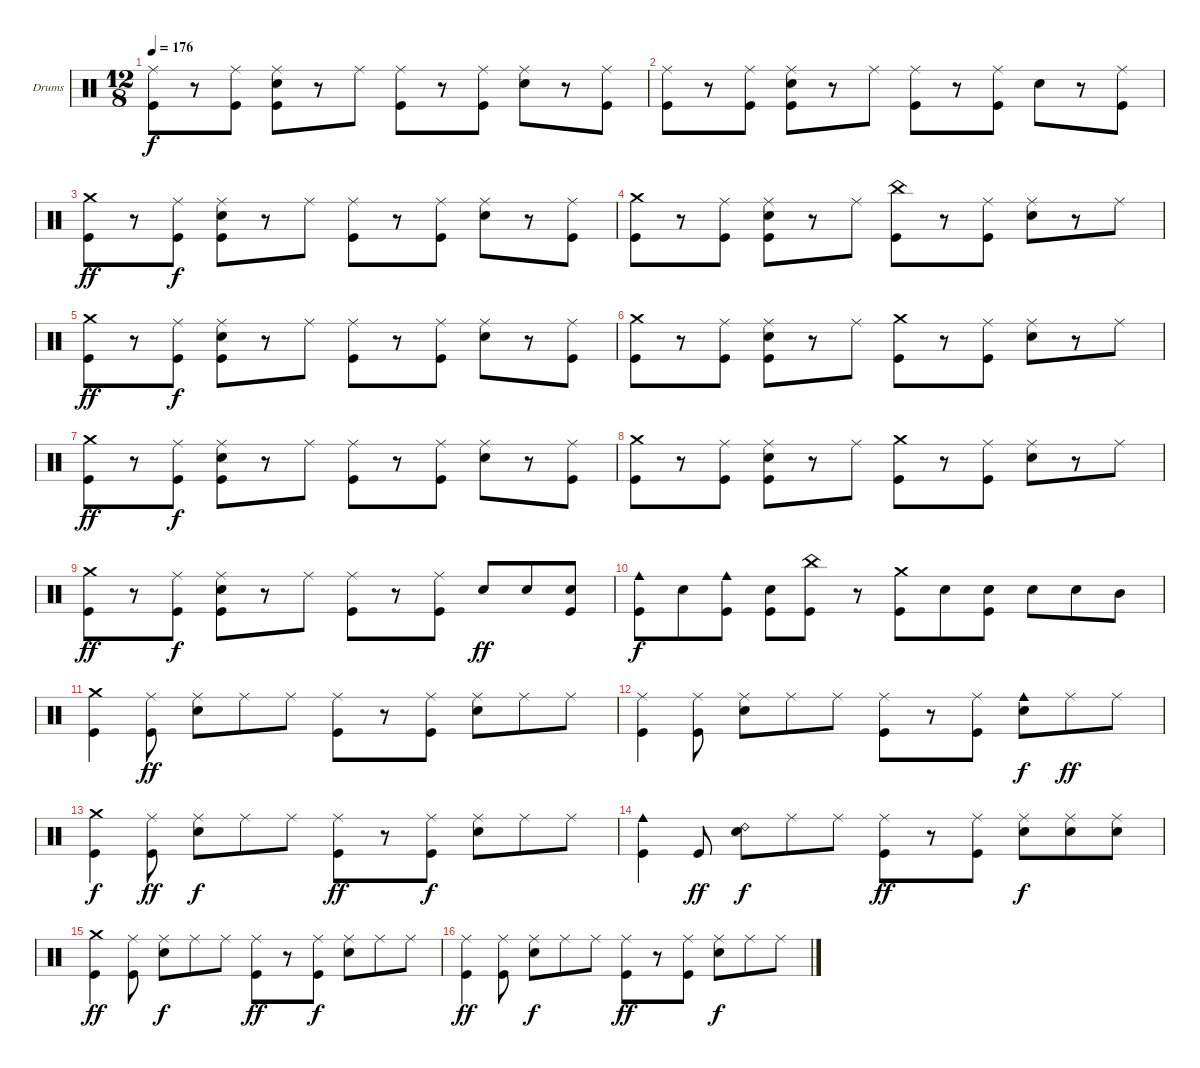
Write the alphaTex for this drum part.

\defaultSystemsLayout 4
\bracketExtendMode groupsimilarinstruments
\firstSystemTrackNameOrientation horizontal
\otherSystemsTrackNameOrientation horizontal
\track ("Drumkit" "Drums") {instrument percussion}
\staff {score}
\articulation defaults
\ts (12 8)
\tempo 176
\clef neutral
\scale
0.333333
\ks c
("Ride (middle)" "Kick (hit)").8{dy f} r.8 ("Ride (middle)" "Kick (hit)").8 ("Ride (middle)" "Snare (hit) 2" "Kick (hit)").8 r.8 "Ride (middle)".8 ("Ride (middle)" "Kick (hit)").8 r.8 ("Ride (middle)" "Kick (hit)").8 ("Ride (middle)" "Snare (hit) 2").8 r.8 ("Ride (middle)" "Kick (hit)").8 |
\scale
0.333333 ("Ride (middle)" "Kick (hit)").8 r.8 ("Ride (middle)" "Kick (hit)").8 ("Ride (middle)" "Snare (hit) 2" "Kick (hit)").8 r.8 "Ride (middle)".8 ("Ride (middle)" "Kick (hit)").8 r.8 ("Ride (middle)" "Kick (hit)").8 "Snare (hit) 2".8 r.8 ("Ride (middle)" "Kick (hit)").8 |
\scale
0.333333 ("Crash medium (hit)" "Kick (hit)").8{dy ff} r.8 ("Ride (middle)" "Kick (hit)").8{dy f} ("Ride (middle)" "Snare (hit) 2" "Kick (hit)").8 r.8 "Ride (middle)".8 ("Ride (middle)" "Kick (hit)").8 r.8 ("Ride (middle)" "Kick (hit)").8 ("Ride (middle)" "Snare (hit) 2").8 r.8 ("Ride (middle)" "Kick (hit)").8 |
\scale
0.333333 ("Crash medium (hit)" "Kick (hit)").8 r.8 ("Ride (middle)" "Kick (hit)").8 ("Ride (middle)" "Snare (hit) 2" "Kick (hit)").8 r.8 "Ride (middle)".8 ("China (hit)" "Kick (hit)").8 r.8 ("Ride (middle)" "Kick (hit)").8 ("Ride (middle)" "Snare (hit) 2").8 r.8 "Ride (middle)".8 |
\scale
0.333333 ("Crash medium (hit)" "Kick (hit)").8{dy ff} r.8 ("Ride (middle)" "Kick (hit)").8{dy f} ("Ride (middle)" "Snare (hit) 2" "Kick (hit)").8 r.8 "Ride (middle)".8 ("Ride (middle)" "Kick (hit)").8 r.8 ("Ride (middle)" "Kick (hit)").8 ("Ride (middle)" "Snare (hit) 2").8 r.8 ("Ride (middle)" "Kick (hit)").8 |
\scale
0.333333 ("Crash medium (hit)" "Kick (hit)").8 r.8 ("Ride (middle)" "Kick (hit)").8 ("Ride (middle)" "Snare (hit) 2" "Kick (hit)").8 r.8 "Ride (middle)".8 ("Crash medium (hit)" "Kick (hit)").8 r.8 ("Ride (middle)" "Kick (hit)").8 ("Ride (middle)" "Snare (hit) 2").8 r.8 "Ride (middle)".8 |
\scale
0.333333 ("Crash medium (hit)" "Kick (hit)").8{dy ff} r.8 ("Ride (middle)" "Kick (hit)").8{dy f} ("Ride (middle)" "Snare (hit) 2" "Kick (hit)").8 r.8 "Ride (middle)".8 ("Ride (middle)" "Kick (hit)").8 r.8 ("Ride (middle)" "Kick (hit)").8 ("Ride (middle)" "Snare (hit) 2").8 r.8 ("Ride (middle)" "Kick (hit)").8 |
\scale
0.333333 ("Crash medium (hit)" "Kick (hit)").8 r.8 ("Ride (middle)" "Kick (hit)").8 ("Ride (middle)" "Snare (hit) 2" "Kick (hit)").8 r.8 "Ride (middle)".8 ("Crash medium (hit)" "Kick (hit)").8 r.8 ("Ride (middle)" "Kick (hit)").8 ("Ride (middle)" "Snare (hit) 2").8 r.8 "Ride (middle)".8 |
\scale
0.333333 ("Crash medium (hit)" "Kick (hit)").8{dy ff} r.8 ("Ride (middle)" "Kick (hit)").8{dy f} ("Ride (middle)" "Snare (hit) 2" "Kick (hit)").8 r.8 "Ride (middle)".8 ("Ride (middle)" "Kick (hit)").8 r.8 ("Ride (middle)" "Kick (hit)").8 "Snare (hit) 2".8{dy ff} "Snare (hit) 2".8 ("Snare (hit) 2" "Kick (hit)").8 |
\scale
0.333333 ("Cowbell medium (hit)" "Kick (hit)").8{dy f} "Snare (hit) 2".8 ("Cowbell medium (hit)" "Kick (hit)").8 ("Snare (hit) 2" "Kick (hit)").8 ("China (hit)" "Kick (hit)").8 r.8 ("Crash medium (hit)" "Kick (hit)").8 "Snare (hit) 2".8 ("Snare (hit) 2" "Kick (hit)").8 "Snare (hit) 2".8 "Snare (hit) 2".8 "Mid Tom (hit)".8 |
\scale
0.333333 ("Crash medium (hit)" "Kick (hit)").4 ("Ride (middle)" "Kick (hit)").8{dy ff} ("Ride (middle)" "Snare (hit) 2").8 "Ride (middle)".8 "Ride (middle)".8 ("Ride (middle)" "Kick (hit)").8 r.8 ("Ride (middle)" "Kick (hit)").8 ("Ride (middle)" "Snare (hit) 2").8 "Ride (middle)".8 "Ride (middle)".8 |
\scale
0.333333 ("Ride (middle)" "Kick (hit)").4 ("Ride (middle)" "Kick (hit)").8 ("Ride (middle)" "Snare (hit) 2").8 "Ride (middle)".8 "Ride (middle)".8 ("Ride (middle)" "Kick (hit)").8 r.8 ("Ride (middle)" "Kick (hit)").8 ("Cowbell medium (hit)" "Snare (hit) 2").8{dy f} "Ride (middle)".8{dy ff} "Ride (middle)".8 |
\scale
0.333333 ("Crash medium (hit)" "Kick (hit)").4{dy f} ("Ride (middle)" "Kick (hit)").8{dy ff} ("Ride (middle)" "Snare (hit) 2").8{dy f} "Ride (middle)".8 "Ride (middle)".8 ("Ride (middle)" "Kick (hit)").8{dy ff} r.8 ("Ride (middle)" "Kick (hit)").8{dy f} ("Ride (middle)" "Snare (hit) 2").8 "Ride (middle)".8 "Ride (middle)".8 |
\scale
0.333333 ("Cowbell medium (hit)" "Kick (hit)").4 "Kick (hit)".8{dy ff} ("Ride (bell) 2" "Snare (hit) 2").8{dy f} "Ride (middle)".8 "Ride (middle)".8 ("Ride (middle)" "Kick (hit)").8{dy ff} r.8 ("Ride (middle)" "Kick (hit)").8 ("Ride (middle)" "Snare (hit) 2").8{dy f} ("Ride (middle)" "Snare (hit) 2").8 ("Ride (middle)" "Snare (hit) 2").8 |
\scale
0.333333 ("Crash medium (hit)" "Kick (hit)").4{dy ff} ("Ride (middle)" "Kick (hit)").8 ("Ride (middle)" "Snare (hit) 2").8{dy f} "Ride (middle)".8 "Ride (middle)".8 ("Ride (middle)" "Kick (hit)").8{dy ff} r.8 ("Ride (middle)" "Kick (hit)").8{dy f} ("Ride (middle)" "Snare (hit) 2").8 "Ride (middle)".8 "Ride (middle)".8 |
\scale
0.333333 ("Ride (middle)" "Kick (hit)").4{dy ff} ("Ride (middle)" "Kick (hit)").8 ("Ride (middle)" "Snare (hit) 2").8{dy f} "Ride (middle)".8 "Ride (middle)".8 ("Ride (middle)" "Kick (hit)").8{dy ff} r.8 ("Ride (middle)" "Kick (hit)").8 ("Ride (middle)" "Snare (hit) 2").8{dy f} "Ride (middle)".8 "Ride (middle)".8
